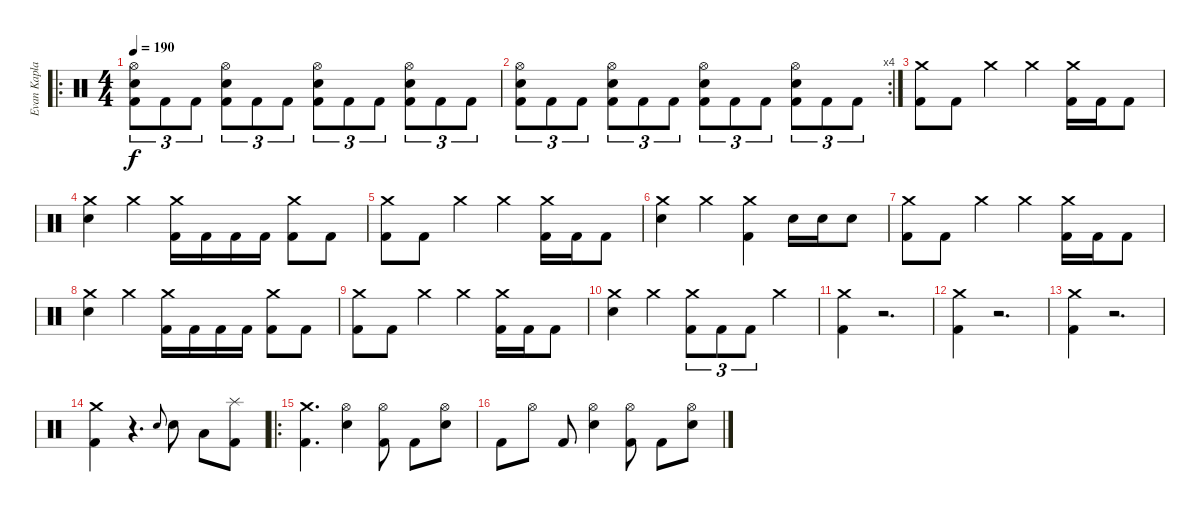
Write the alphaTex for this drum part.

\track ("Evan Kaplan (Drums)" "Evan Kapla") {instrument percussion}
\staff {score}
\articulation defaults
\ro
\ts (4 4)
\tempo 190
\clef neutral
\ks c
("Hi-Hat (open)" "Electric Snare (hit)" "Kick (hit) 2").8{tu (3 2) dy f} "Kick (hit) 2".8{tu (3 2)} "Kick (hit) 2".8{tu (3 2)} ("Hi-Hat (open)" "Electric Snare (hit)" "Kick (hit) 2").8{tu (3 2)} "Kick (hit) 2".8{tu (3 2)} "Kick (hit) 2".8{tu (3 2)} ("Hi-Hat (open)" "Electric Snare (hit)" "Kick (hit) 2").8{tu (3 2)} "Kick (hit) 2".8{tu (3 2)} "Kick (hit) 2".8{tu (3 2)} ("Hi-Hat (open)" "Electric Snare (hit)" "Kick (hit) 2").8{tu (3 2)} "Kick (hit) 2".8{tu (3 2)} "Kick (hit) 2".8{tu (3 2)} |
\rc 4
("Hi-Hat (open)" "Electric Snare (hit)" "Kick (hit) 2").8{tu (3 2)} "Kick (hit) 2".8{tu (3 2)} "Kick (hit) 2".8{tu (3 2)} ("Hi-Hat (open)" "Electric Snare (hit)" "Kick (hit) 2").8{tu (3 2)} "Kick (hit) 2".8{tu (3 2)} "Kick (hit) 2".8{tu (3 2)} ("Hi-Hat (open)" "Electric Snare (hit)" "Kick (hit) 2").8{tu (3 2)} "Kick (hit) 2".8{tu (3 2)} "Kick (hit) 2".8{tu (3 2)} ("Hi-Hat (open)" "Electric Snare (hit)" "Kick (hit) 2").8{tu (3 2)} "Kick (hit) 2".8{tu (3 2)} "Kick (hit) 2".8{tu (3 2)} |
("Crash medium (hit)" "Kick (hit) 2").8 "Kick (hit) 2".8 "Crash medium (hit)".4 "Crash medium (hit)".4 ("Crash medium (hit)" "Kick (hit) 2").16 "Kick (hit) 2".16 "Kick (hit) 2".8 |
("Crash medium (hit)" "Electric Snare (hit)").4 "Crash medium (hit)".4 ("Crash medium (hit)" "Kick (hit) 2").16 "Kick (hit) 2".16 "Kick (hit) 2".16 "Kick (hit) 2".16 ("Crash medium (hit)" "Kick (hit) 2").8 "Kick (hit) 2".8 |
("Crash medium (hit)" "Kick (hit) 2").8 "Kick (hit) 2".8 "Crash medium (hit)".4 "Crash medium (hit)".4 ("Crash medium (hit)" "Kick (hit) 2").16 "Kick (hit) 2".16 "Kick (hit) 2".8 |
("Crash medium (hit)" "Electric Snare (hit)").4 "Crash medium (hit)".4 ("Crash medium (hit)" "Kick (hit) 2").4 "Electric Snare (hit)".16 "Electric Snare (hit)".16 "Electric Snare (hit)".8 |
("Crash medium (hit)" "Kick (hit) 2").8 "Kick (hit) 2".8 "Crash medium (hit)".4 "Crash medium (hit)".4 ("Crash medium (hit)" "Kick (hit) 2").16 "Kick (hit) 2".16 "Kick (hit) 2".8 |
("Crash medium (hit)" "Electric Snare (hit)").4 "Crash medium (hit)".4 ("Crash medium (hit)" "Kick (hit) 2").16 "Kick (hit) 2".16 "Kick (hit) 2".16 "Kick (hit) 2".16 ("Crash medium (hit)" "Kick (hit) 2").8 "Kick (hit) 2".8 |
("Crash medium (hit)" "Kick (hit) 2").8 "Kick (hit) 2".8 "Crash medium (hit)".4 "Crash medium (hit)".4 ("Crash medium (hit)" "Kick (hit) 2").16 "Kick (hit) 2".16 "Kick (hit) 2".8 |
("Crash medium (hit)" "Electric Snare (hit)").4 "Crash medium (hit)".4 ("Crash medium (hit)" "Kick (hit) 2").8{tu (3 2)} "Kick (hit) 2".8{tu (3 2)} "Kick (hit) 2".8{tu (3 2)} "Crash medium (hit)".4 |
("Crash medium (hit)" "Kick (hit) 2").4 r.2{d volume 0} |
("Crash medium (hit)" "Kick (hit) 2").4{volume 13} r.2{d volume 0} |
("Crash medium (hit)" "Kick (hit) 2").4{volume 13} r.2{d volume 0} |
("Crash medium (hit)" "Kick (hit) 2").4{volume 13} r.4{d volume 0} "Electric Snare (hit)".8{gr onbeat} "Electric Snare (hit)".8{volume 13} "Low Tom (hit)".8 ("Splash (hit)" "Kick (hit) 2").8 |
\ro
("Crash medium (hit)" "Kick (hit) 2").4{d} ("Hi-Hat (open)" "Electric Snare (hit)").4 ("Hi-Hat (open)" "Kick (hit) 2").8 "Kick (hit) 2".8 ("Hi-Hat (open)" "Electric Snare (hit)").8 |
"Kick (hit) 2".8 "Hi-Hat (open)".8 "Kick (hit) 2".8 ("Hi-Hat (open)" "Electric Snare (hit)").4 ("Hi-Hat (open)" "Kick (hit) 2").8 "Kick (hit) 2".8 ("Hi-Hat (open)" "Electric Snare (hit)").8
